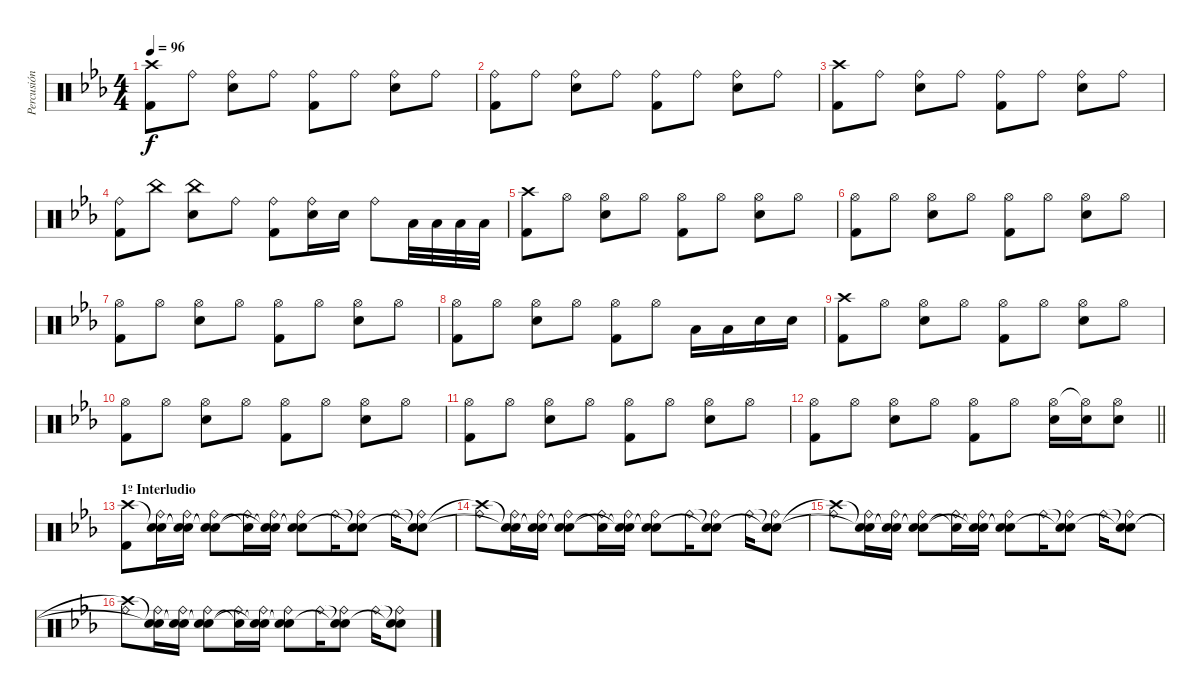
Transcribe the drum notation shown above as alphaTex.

\track ("Percusión" "Percusión") {instrument percussion}
\staff {score}
\articulation defaults
\ts (4 4)
\tempo 96
\clef neutral
\ks eb
("Crash high (hit)" "Kick (hit) 2").8{dy f} "Ride (bell)".8 ("Ride (bell)" "Electric Snare (hit)").8 "Ride (bell)".8 ("Ride (bell)" "Kick (hit) 2").8 "Ride (bell)".8 ("Ride (bell)" "Electric Snare (hit)").8 "Ride (bell)".8 |
("Ride (bell)" "Kick (hit) 2").8 "Ride (bell)".8 ("Ride (bell)" "Electric Snare (hit)").8 "Ride (bell)".8 ("Ride (bell)" "Kick (hit) 2").8 "Ride (bell)".8 ("Ride (bell)" "Electric Snare (hit)").8 "Ride (bell)".8 |
("Crash high (hit)" "Kick (hit) 2").8 "Ride (bell)".8 ("Ride (bell)" "Electric Snare (hit)").8 "Ride (bell)".8 ("Ride (bell)" "Kick (hit) 2").8 "Ride (bell)".8 ("Ride (bell)" "Electric Snare (hit)").8 "Ride (bell)".8 |
("Ride (bell)" "Kick (hit) 2").8 "China (hit)".8 ("China (hit)" "Electric Snare (hit)").8 "Ride (bell)".8 ("Ride (bell)" "Kick (hit) 2").8 ("Ride (bell)" "Electric Snare (hit)").16 "Electric Snare (hit)".16 "Ride (bell)".8 "Low Tom (hit)".32 "Low Tom (hit)".32 "Low Tom (hit)".32 "Low Tom (hit)".32 |
("Crash high (hit)" "Kick (hit) 2").8 "Hi-Hat (open)".8 ("Hi-Hat (open)" "Electric Snare (hit)").8 "Hi-Hat (open)".8 ("Hi-Hat (open)" "Kick (hit) 2").8 "Hi-Hat (open)".8 ("Hi-Hat (open)" "Electric Snare (hit)").8 "Hi-Hat (open)".8 |
("Hi-Hat (open)" "Kick (hit) 2").8 "Hi-Hat (open)".8 ("Hi-Hat (open)" "Electric Snare (hit)").8 "Hi-Hat (open)".8 ("Hi-Hat (open)" "Kick (hit) 2").8 "Hi-Hat (open)".8 ("Hi-Hat (open)" "Electric Snare (hit)").8 "Hi-Hat (open)".8 |
("Hi-Hat (open)" "Kick (hit) 2").8 "Hi-Hat (open)".8 ("Hi-Hat (open)" "Electric Snare (hit)").8 "Hi-Hat (open)".8 ("Hi-Hat (open)" "Kick (hit) 2").8 "Hi-Hat (open)".8 ("Hi-Hat (open)" "Electric Snare (hit)").8 "Hi-Hat (open)".8 |
("Hi-Hat (open)" "Kick (hit) 2").8 "Hi-Hat (open)".8 ("Hi-Hat (open)" "Electric Snare (hit)").8 "Hi-Hat (open)".8 ("Hi-Hat (open)" "Kick (hit) 2").8 "Hi-Hat (open)".8 "Low Tom (hit)".16 "Low Tom (hit)".16 "Electric Snare (hit)".16 "Electric Snare (hit)".16 |
("Crash high (hit)" "Kick (hit) 2").8 "Hi-Hat (open)".8 ("Hi-Hat (open)" "Electric Snare (hit)").8 "Hi-Hat (open)".8 ("Hi-Hat (open)" "Kick (hit) 2").8 "Hi-Hat (open)".8 ("Hi-Hat (open)" "Electric Snare (hit)").8 "Hi-Hat (open)".8 |
("Hi-Hat (open)" "Kick (hit) 2").8 "Hi-Hat (open)".8 ("Hi-Hat (open)" "Electric Snare (hit)").8 "Hi-Hat (open)".8 ("Hi-Hat (open)" "Kick (hit) 2").8 "Hi-Hat (open)".8 ("Hi-Hat (open)" "Electric Snare (hit)").8 "Hi-Hat (open)".8 |
("Hi-Hat (open)" "Kick (hit) 2").8 "Hi-Hat (open)".8 ("Hi-Hat (open)" "Electric Snare (hit)").8 "Hi-Hat (open)".8 ("Hi-Hat (open)" "Kick (hit) 2").8 "Hi-Hat (open)".8 ("Hi-Hat (open)" "Electric Snare (hit)").8 "Hi-Hat (open)".8 |
\barLineRight lightlight
("Hi-Hat (open)" "Kick (hit) 2").8 "Hi-Hat (open)".8 ("Hi-Hat (open)" "Electric Snare (hit)").8 "Hi-Hat (open)".8 ("Hi-Hat (open)" "Kick (hit) 2").8 "Hi-Hat (open)".8 ("Hi-Hat (open)" "Electric Snare (hit)").16 ("Hi-Hat (open)"{t} "Electric Snare (hit)").16 ("Hi-Hat (open)" "Electric Snare (hit)").8 |
\section ("" "1º Interludio ")
("Crash high (hit)" "Kick (hit) 2").8 ("Snare (hit)"{t} "Ride (bell)" "Snare (hit)").16 ("Snare (hit)"{t} "Ride (bell)" "Snare (hit)"{t}).16 ("Snare (hit)"{t} "Ride (bell)" "Snare (hit)"{t}).8 ("Snare (hit)"{t} "Ride (bell)").16 ("Snare (hit)"{t} "Ride (bell)" "Snare (hit)"{t}).16 ("Snare (hit)"{t} "Ride (bell)" "Snare (hit)"{t}).8 "Ride (bell)".16 ("Snare (hit)"{t} "Ride (bell)" "Snare (hit)"{t}).8 "Ride (bell)".16 ("Snare (hit)"{t} "Ride (bell)" "Snare (hit)"{t}).8 |
("Crash high (hit)"{t} "Ride (bell)").8 ("Snare (hit)"{t} "Ride (bell)" "Snare (hit)"{t}).16 ("Snare (hit)"{t} "Ride (bell)" "Snare (hit)"{t}).16 ("Snare (hit)"{t} "Ride (bell)" "Snare (hit)"{t}).8 ("Snare (hit)"{t} "Ride (bell)").16 ("Snare (hit)"{t} "Ride (bell)" "Snare (hit)"{t}).16 ("Snare (hit)"{t} "Ride (bell)" "Snare (hit)"{t}).8 "Ride (bell)".16 ("Snare (hit)"{t} "Ride (bell)" "Snare (hit)"{t}).8 "Ride (bell)".16 ("Snare (hit)"{t} "Ride (bell)" "Snare (hit)"{t}).8 |
("Crash high (hit)"{t} "Ride (bell)").8 ("Snare (hit)"{t} "Ride (bell)" "Snare (hit)"{t}).16 ("Snare (hit)"{t} "Ride (bell)" "Snare (hit)"{t}).16 ("Snare (hit)"{t} "Ride (bell)" "Snare (hit)"{t}).8 ("Snare (hit)"{t} "Ride (bell)").16 ("Snare (hit)"{t} "Ride (bell)" "Snare (hit)"{t}).16 ("Snare (hit)"{t} "Ride (bell)" "Snare (hit)"{t}).8 "Ride (bell)".16 ("Snare (hit)"{t} "Ride (bell)" "Snare (hit)"{t}).8 "Ride (bell)".16 ("Snare (hit)"{t} "Ride (bell)" "Snare (hit)"{t}).8 |
("Crash high (hit)"{t} "Ride (bell)").8 ("Snare (hit)"{t} "Ride (bell)" "Snare (hit)"{t}).16 ("Snare (hit)"{t} "Ride (bell)" "Snare (hit)"{t}).16 ("Snare (hit)"{t} "Ride (bell)" "Snare (hit)"{t}).8 ("Snare (hit)"{t} "Ride (bell)").16 ("Snare (hit)"{t} "Ride (bell)" "Snare (hit)"{t}).16 ("Snare (hit)"{t} "Ride (bell)" "Snare (hit)"{t}).8 "Ride (bell)".16 ("Snare (hit)"{t} "Ride (bell)" "Snare (hit)"{t}).8 "Ride (bell)".16 ("Snare (hit)"{t} "Ride (bell)" "Snare (hit)"{t}).8
